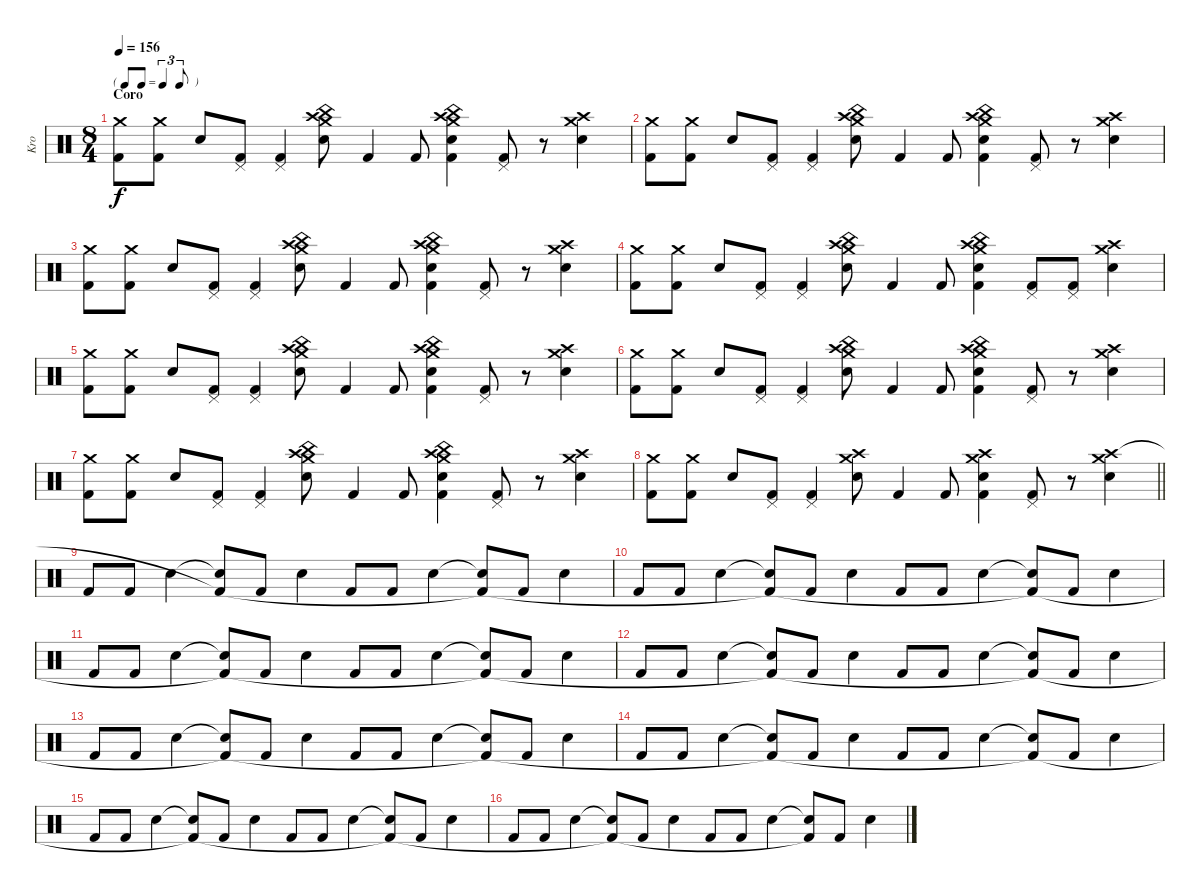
\track ("Kro" "Kro") {instrument percussion}
\staff {score}
\articulation defaults
\ts (8 4)
\tf triplet8th
\section ("" "Coro")
\tempo 156
\clef neutral
\ks c
("Crash medium (hit)" "Kick (hit) 2").8{dy f} ("Crash medium (hit)" "Kick (hit) 2").8 "Electric Snare (hit)".8 ("Pedal Hi-Hat (hit)" "Kick (hit) 2").8 ("Pedal Hi-Hat (hit)" "Kick (hit) 2").4 ("Crash medium (hit)" "China (hit)" "Electric Snare (hit)" "Crash high (hit)").8 "Kick (hit) 2".4 "Kick (hit) 2".8 ("China (hit)" "Crash medium (hit)" "Electric Snare (hit)" "Kick (hit) 2" "Crash high (hit)").4 ("Pedal Hi-Hat (hit)" "Kick (hit) 2").8 r.8 ("Crash medium (hit)" "Crash high (hit)" "Electric Snare (hit)").4 |
("Crash medium (hit)" "Kick (hit) 2").8 ("Crash medium (hit)" "Kick (hit) 2").8 "Electric Snare (hit)".8 ("Pedal Hi-Hat (hit)" "Kick (hit) 2").8 ("Pedal Hi-Hat (hit)" "Kick (hit) 2").4 ("Crash medium (hit)" "China (hit)" "Electric Snare (hit)" "Crash high (hit)").8 "Kick (hit) 2".4 "Kick (hit) 2".8 ("China (hit)" "Crash medium (hit)" "Electric Snare (hit)" "Kick (hit) 2" "Crash high (hit)").4 ("Pedal Hi-Hat (hit)" "Kick (hit) 2").8 r.8 ("Crash medium (hit)" "Crash high (hit)" "Electric Snare (hit)").4 |
("Crash medium (hit)" "Kick (hit) 2").8 ("Crash medium (hit)" "Kick (hit) 2").8 "Electric Snare (hit)".8 ("Pedal Hi-Hat (hit)" "Kick (hit) 2").8 ("Pedal Hi-Hat (hit)" "Kick (hit) 2").4 ("Crash medium (hit)" "China (hit)" "Electric Snare (hit)" "Crash high (hit)").8 "Kick (hit) 2".4 "Kick (hit) 2".8 ("China (hit)" "Crash medium (hit)" "Electric Snare (hit)" "Kick (hit) 2" "Crash high (hit)").4 ("Pedal Hi-Hat (hit)" "Kick (hit) 2").8 r.8 ("Crash medium (hit)" "Crash high (hit)" "Electric Snare (hit)").4 |
("Crash medium (hit)" "Kick (hit) 2").8 ("Crash medium (hit)" "Kick (hit) 2").8 "Electric Snare (hit)".8 ("Pedal Hi-Hat (hit)" "Kick (hit) 2").8 ("Pedal Hi-Hat (hit)" "Kick (hit) 2").4 ("Crash medium (hit)" "China (hit)" "Electric Snare (hit)" "Crash high (hit)").8 "Kick (hit) 2".4 "Kick (hit) 2".8 ("China (hit)" "Crash medium (hit)" "Electric Snare (hit)" "Kick (hit) 2" "Crash high (hit)").4 ("Pedal Hi-Hat (hit)" "Kick (hit) 2").8 ("Pedal Hi-Hat (hit)" "Kick (hit) 2").8 ("Crash medium (hit)" "Crash high (hit)" "Electric Snare (hit)").4 |
("Crash medium (hit)" "Kick (hit) 2").8 ("Crash medium (hit)" "Kick (hit) 2").8 "Electric Snare (hit)".8 ("Pedal Hi-Hat (hit)" "Kick (hit) 2").8 ("Pedal Hi-Hat (hit)" "Kick (hit) 2").4 ("Crash medium (hit)" "China (hit)" "Electric Snare (hit)" "Crash high (hit)").8 "Kick (hit) 2".4 "Kick (hit) 2".8 ("China (hit)" "Crash medium (hit)" "Electric Snare (hit)" "Kick (hit) 2" "Crash high (hit)").4 ("Pedal Hi-Hat (hit)" "Kick (hit) 2").8 r.8 ("Crash medium (hit)" "Crash high (hit)" "Electric Snare (hit)").4 |
("Crash medium (hit)" "Kick (hit) 2").8 ("Crash medium (hit)" "Kick (hit) 2").8 "Electric Snare (hit)".8 ("Pedal Hi-Hat (hit)" "Kick (hit) 2").8 ("Pedal Hi-Hat (hit)" "Kick (hit) 2").4 ("Crash medium (hit)" "China (hit)" "Electric Snare (hit)" "Crash high (hit)").8 "Kick (hit) 2".4 "Kick (hit) 2".8 ("China (hit)" "Crash medium (hit)" "Electric Snare (hit)" "Kick (hit) 2" "Crash high (hit)").4 ("Pedal Hi-Hat (hit)" "Kick (hit) 2").8 r.8 ("Crash medium (hit)" "Crash high (hit)" "Electric Snare (hit)").4 |
("Crash medium (hit)" "Kick (hit) 2").8 ("Crash medium (hit)" "Kick (hit) 2").8 "Electric Snare (hit)".8 ("Pedal Hi-Hat (hit)" "Kick (hit) 2").8 ("Pedal Hi-Hat (hit)" "Kick (hit) 2").4 ("Crash medium (hit)" "China (hit)" "Electric Snare (hit)" "Crash high (hit)").8 "Kick (hit) 2".4 "Kick (hit) 2".8 ("China (hit)" "Crash medium (hit)" "Electric Snare (hit)" "Kick (hit) 2" "Crash high (hit)").4 ("Pedal Hi-Hat (hit)" "Kick (hit) 2").8 r.8 ("Crash medium (hit)" "Crash high (hit)" "Electric Snare (hit)").4 |
\barLineRight lightlight
("Crash medium (hit)" "Kick (hit) 2").8 ("Crash medium (hit)" "Kick (hit) 2").8 "Electric Snare (hit)".8 ("Pedal Hi-Hat (hit)" "Kick (hit) 2").8 ("Pedal Hi-Hat (hit)" "Kick (hit) 2").4 ("Crash medium (hit)" "Electric Snare (hit)" "Crash high (hit)").8 "Kick (hit) 2".4 "Kick (hit) 2".8 ("Crash medium (hit)" "Electric Snare (hit)" "Kick (hit) 2" "Crash high (hit)").4 ("Pedal Hi-Hat (hit)" "Kick (hit) 2").8 r.8 ("Crash medium (hit)" "Crash high (hit)" "Electric Snare (hit)").4 |
"Kick (hit) 2".8 "Kick (hit) 2".8 "Electric Snare (hit)".4 ("Snare (hit)"{t} "Kick (hit) 2"{t}).8 "Kick (hit) 2".8 "Electric Snare (hit)".4 "Kick (hit) 2".8 "Kick (hit) 2".8 "Electric Snare (hit)".4 ("Snare (hit)"{t} "Kick (hit) 2"{t}).8 "Kick (hit) 2".8 "Electric Snare (hit)".4 |
"Kick (hit) 2".8 "Kick (hit) 2".8 "Electric Snare (hit)".4 ("Snare (hit)"{t} "Kick (hit) 2"{t}).8 "Kick (hit) 2".8 "Electric Snare (hit)".4 "Kick (hit) 2".8 "Kick (hit) 2".8 "Electric Snare (hit)".4 ("Snare (hit)"{t} "Kick (hit) 2"{t}).8 "Kick (hit) 2".8 "Electric Snare (hit)".4 |
"Kick (hit) 2".8 "Kick (hit) 2".8 "Electric Snare (hit)".4 ("Snare (hit)"{t} "Kick (hit) 2"{t}).8 "Kick (hit) 2".8 "Electric Snare (hit)".4 "Kick (hit) 2".8 "Kick (hit) 2".8 "Electric Snare (hit)".4 ("Snare (hit)"{t} "Kick (hit) 2"{t}).8 "Kick (hit) 2".8 "Electric Snare (hit)".4 |
"Kick (hit) 2".8 "Kick (hit) 2".8 "Electric Snare (hit)".4 ("Snare (hit)"{t} "Kick (hit) 2"{t}).8 "Kick (hit) 2".8 "Electric Snare (hit)".4 "Kick (hit) 2".8 "Kick (hit) 2".8 "Electric Snare (hit)".4 ("Snare (hit)"{t} "Kick (hit) 2"{t}).8 "Kick (hit) 2".8 "Electric Snare (hit)".4 |
"Kick (hit) 2".8 "Kick (hit) 2".8 "Electric Snare (hit)".4 ("Snare (hit)"{t} "Kick (hit) 2"{t}).8 "Kick (hit) 2".8 "Electric Snare (hit)".4 "Kick (hit) 2".8 "Kick (hit) 2".8 "Electric Snare (hit)".4 ("Snare (hit)"{t} "Kick (hit) 2"{t}).8 "Kick (hit) 2".8 "Electric Snare (hit)".4 |
"Kick (hit) 2".8 "Kick (hit) 2".8 "Electric Snare (hit)".4 ("Snare (hit)"{t} "Kick (hit) 2"{t}).8 "Kick (hit) 2".8 "Electric Snare (hit)".4 "Kick (hit) 2".8 "Kick (hit) 2".8 "Electric Snare (hit)".4 ("Snare (hit)"{t} "Kick (hit) 2"{t}).8 "Kick (hit) 2".8 "Electric Snare (hit)".4 |
"Kick (hit) 2".8 "Kick (hit) 2".8 "Electric Snare (hit)".4 ("Snare (hit)"{t} "Kick (hit) 2"{t}).8 "Kick (hit) 2".8 "Electric Snare (hit)".4 "Kick (hit) 2".8 "Kick (hit) 2".8 "Electric Snare (hit)".4 ("Snare (hit)"{t} "Kick (hit) 2"{t}).8 "Kick (hit) 2".8 "Electric Snare (hit)".4 |
"Kick (hit) 2".8 "Kick (hit) 2".8 "Electric Snare (hit)".4 ("Snare (hit)"{t} "Kick (hit) 2"{t}).8 "Kick (hit) 2".8 "Electric Snare (hit)".4 "Kick (hit) 2".8 "Kick (hit) 2".8 "Electric Snare (hit)".4 ("Snare (hit)"{t} "Kick (hit) 2"{t}).8 "Kick (hit) 2".8 "Electric Snare (hit)".4
